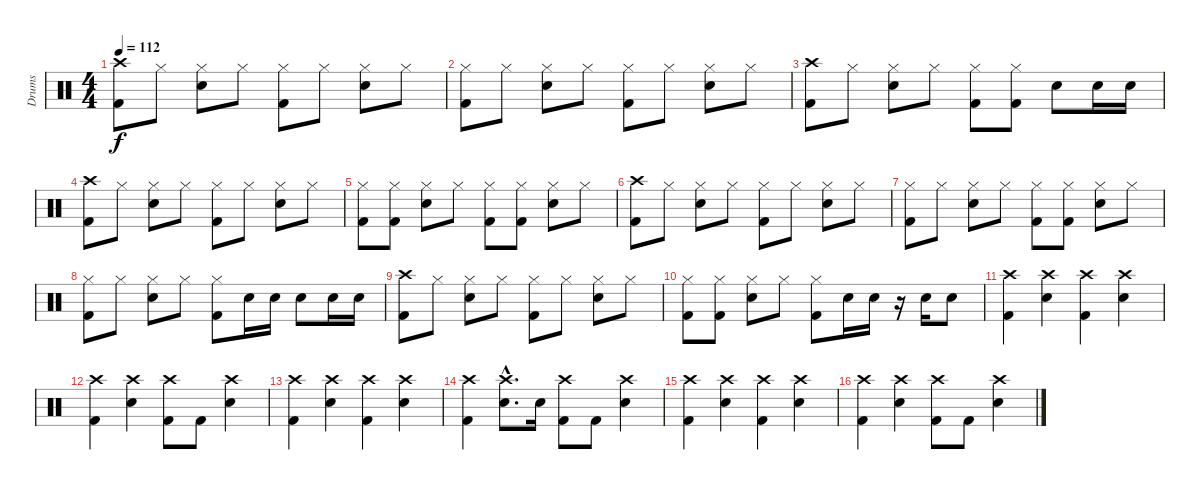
\track ("Drums" "Drums") {instrument percussion}
\staff {score}
\articulation defaults
\ts (4 4)
\tempo 112
\clef neutral
\ks c
("Crash high (hit)" "Kick (hit) 2").8{dy f} "Hi-Hat (closed)".8 ("Hi-Hat (closed)" "Electric Snare (hit)").8 "Hi-Hat (closed)".8 ("Hi-Hat (closed)" "Kick (hit) 2").8 "Hi-Hat (closed)".8 ("Hi-Hat (closed)" "Electric Snare (hit)").8 "Hi-Hat (closed)".8 |
("Hi-Hat (closed)" "Kick (hit) 2").8 "Hi-Hat (closed)".8 ("Hi-Hat (closed)" "Electric Snare (hit)").8 "Hi-Hat (closed)".8 ("Hi-Hat (closed)" "Kick (hit) 2").8 "Hi-Hat (closed)".8 ("Hi-Hat (closed)" "Electric Snare (hit)").8 "Hi-Hat (closed)".8 |
("Crash high (hit)" "Kick (hit) 2").8 "Hi-Hat (closed)".8 ("Hi-Hat (closed)" "Electric Snare (hit)").8 "Hi-Hat (closed)".8 ("Hi-Hat (closed)" "Kick (hit) 2").8 ("Hi-Hat (closed)" "Kick (hit) 2").8 "Electric Snare (hit)".8 "Electric Snare (hit)".16 "Electric Snare (hit)".16 |
("Crash high (hit)" "Kick (hit) 2").8 "Hi-Hat (closed)".8 ("Hi-Hat (closed)" "Electric Snare (hit)").8 "Hi-Hat (closed)".8 ("Hi-Hat (closed)" "Kick (hit) 2").8 "Hi-Hat (closed)".8 ("Hi-Hat (closed)" "Electric Snare (hit)").8 "Hi-Hat (closed)".8 |
("Hi-Hat (closed)" "Kick (hit) 2").8 ("Hi-Hat (closed)" "Kick (hit) 2").8 ("Hi-Hat (closed)" "Electric Snare (hit)").8 "Hi-Hat (closed)".8 ("Hi-Hat (closed)" "Kick (hit) 2").8 ("Hi-Hat (closed)" "Kick (hit) 2").8 ("Hi-Hat (closed)" "Electric Snare (hit)").8 "Hi-Hat (closed)".8 |
("Crash high (hit)" "Kick (hit) 2").8 "Hi-Hat (closed)".8 ("Hi-Hat (closed)" "Electric Snare (hit)").8 "Hi-Hat (closed)".8 ("Hi-Hat (closed)" "Kick (hit) 2").8 "Hi-Hat (closed)".8 ("Hi-Hat (closed)" "Electric Snare (hit)").8 "Hi-Hat (closed)".8 |
("Hi-Hat (closed)" "Kick (hit) 2").8 "Hi-Hat (closed)".8 ("Hi-Hat (closed)" "Electric Snare (hit)").8 "Hi-Hat (closed)".8 ("Hi-Hat (closed)" "Kick (hit) 2").8 ("Hi-Hat (closed)" "Kick (hit) 2").8 ("Hi-Hat (closed)" "Electric Snare (hit)").8 "Hi-Hat (closed)".8 |
("Hi-Hat (closed)" "Kick (hit) 2").8 "Hi-Hat (closed)".8 ("Hi-Hat (closed)" "Electric Snare (hit)").8 "Hi-Hat (closed)".8 ("Hi-Hat (closed)" "Kick (hit) 2").8 "Electric Snare (hit)".16 "Electric Snare (hit)".16 "Electric Snare (hit)".8 "Electric Snare (hit)".16 "Electric Snare (hit)".16 |
("Crash high (hit)" "Kick (hit) 2").8 "Hi-Hat (closed)".8 ("Hi-Hat (closed)" "Electric Snare (hit)").8 "Hi-Hat (closed)".8 ("Hi-Hat (closed)" "Kick (hit) 2").8 "Hi-Hat (closed)".8 ("Hi-Hat (closed)" "Electric Snare (hit)").8 "Hi-Hat (closed)".8 |
("Hi-Hat (closed)" "Kick (hit) 2").8 ("Hi-Hat (closed)" "Kick (hit) 2").8 ("Hi-Hat (closed)" "Electric Snare (hit)").8 "Hi-Hat (closed)".8 ("Hi-Hat (closed)" "Kick (hit) 2").8 "Electric Snare (hit)".16 "Electric Snare (hit)".16 r.16 "Electric Snare (hit)".16 "Electric Snare (hit)".8 |
("Crash high (hit)" "Kick (hit) 2").4 ("Crash high (hit)" "Electric Snare (hit)").4 ("Crash high (hit)" "Kick (hit) 2").4 ("Crash high (hit)" "Electric Snare (hit)").4 |
("Crash high (hit)" "Kick (hit) 2").4 ("Crash high (hit)" "Electric Snare (hit)").4 ("Crash high (hit)" "Kick (hit) 2").8 "Kick (hit) 2".8 ("Crash high (hit)" "Electric Snare (hit)").4 |
("Crash high (hit)" "Kick (hit) 2").4 ("Crash high (hit)" "Electric Snare (hit)").4 ("Crash high (hit)" "Kick (hit) 2").4 ("Crash high (hit)" "Electric Snare (hit)").4 |
("Crash high (hit)" "Kick (hit) 2").4 ("Crash high (hit)"{hac} "Electric Snare (hit)"{hac}).8{d} "Electric Snare (hit)".16 ("Crash high (hit)" "Kick (hit) 2").8 "Kick (hit) 2".8 ("Crash high (hit)" "Electric Snare (hit)").4 |
("Crash high (hit)" "Kick (hit) 2").4 ("Crash high (hit)" "Electric Snare (hit)").4 ("Crash high (hit)" "Kick (hit) 2").4 ("Crash high (hit)" "Electric Snare (hit)").4 |
("Crash high (hit)" "Kick (hit) 2").4 ("Crash high (hit)" "Electric Snare (hit)").4 ("Crash high (hit)" "Kick (hit) 2").8 "Kick (hit) 2".8 ("Crash high (hit)" "Electric Snare (hit)").4
